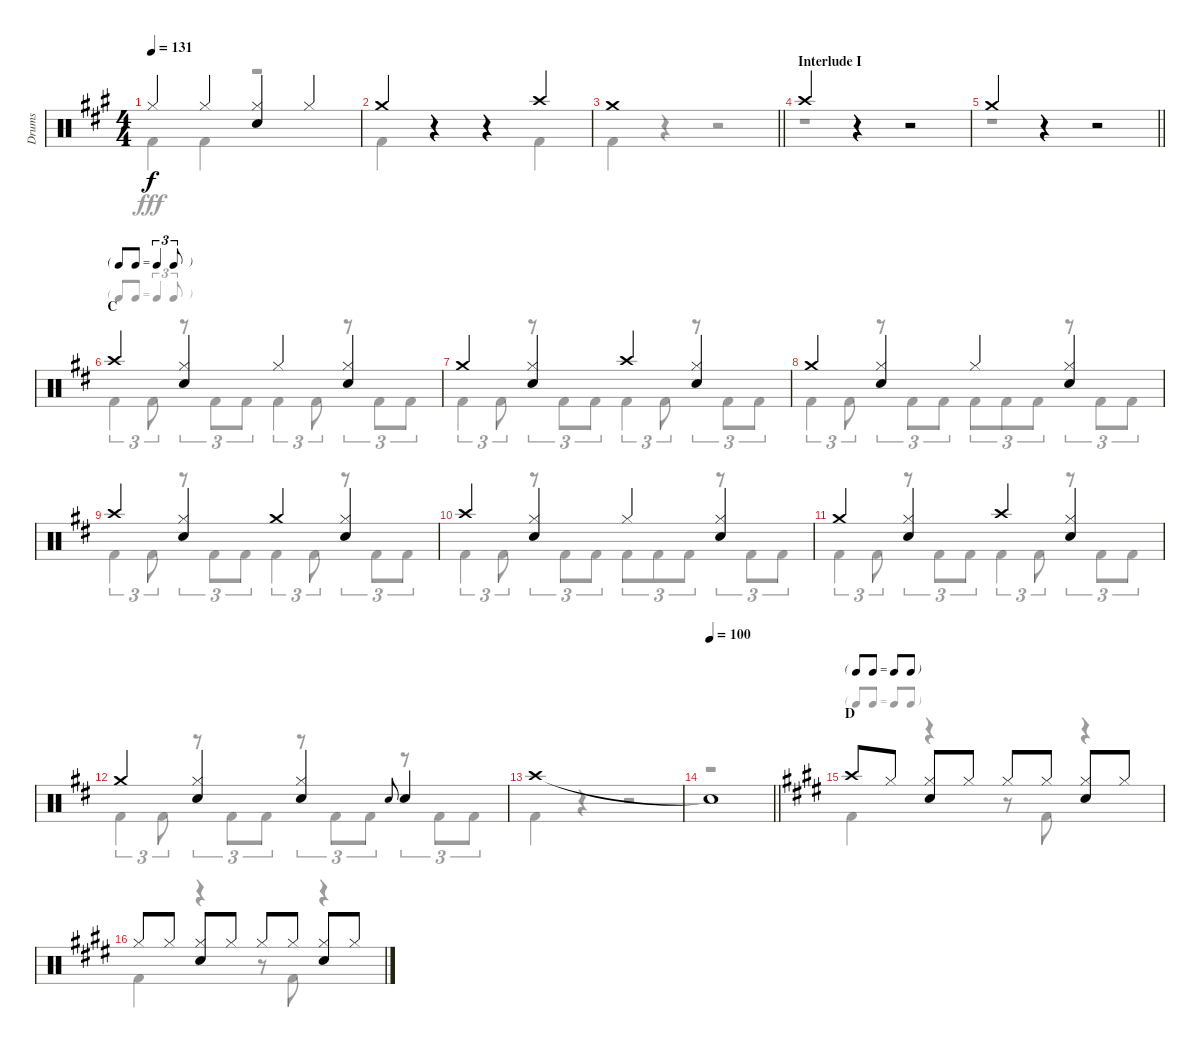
\track ("Drums" "Drums") {instrument percussion}
\staff {score}
\articulation defaults
\voice
\ts (4 4)
\tempo 131
\clef neutral
\ks a "Hi-Hat (closed)".4{dy f} "Hi-Hat (closed)".4
("Hi-Hat (closed)" "Snare (hit) 2").4 "Hi-Hat (closed)".4 |
"Crash medium (hit)".4 r.4 r.4 "Crash high (hit)".4 |
\barLineRight lightlight "Crash medium (hit)".1
|
\section ("" "Interlude I")
"Crash high (hit)".4 r.4 r.2 |
\barLineRight lightlight "Crash medium (hit)".4
r.4 r.2 |
\tf triplet8th
\section ("" "C")
\ks d "Crash high (hit)".4
("Hi-Hat (closed)" "Snare (hit) 2").4 "Hi-Hat (closed)".4 ("Hi-Hat (closed)" "Snare (hit) 2").4 |
"Crash medium (hit)".4 ("Hi-Hat (closed)" "Snare (hit) 2").4 "Crash high (hit)".4 ("Hi-Hat (closed)" "Snare (hit) 2").4 |
"Crash medium (hit)".4 ("Hi-Hat (closed)" "Snare (hit) 2").4 "Hi-Hat (closed)".4 ("Hi-Hat (closed)" "Snare (hit) 2").4 |
"Crash high (hit)".4 ("Hi-Hat (closed)" "Snare (hit) 2").4 "Crash medium (hit)".4 ("Hi-Hat (closed)" "Snare (hit) 2").4 |
"Crash high (hit)".4 ("Hi-Hat (closed)" "Snare (hit) 2").4 "Hi-Hat (closed)".4 ("Hi-Hat (closed)" "Snare (hit) 2").4 |
"Crash medium (hit)".4 ("Hi-Hat (closed)" "Snare (hit) 2").4 "Crash high (hit)".4 ("Hi-Hat (closed)" "Snare (hit) 2").4 |
"Crash medium (hit)".4 ("Hi-Hat (closed)" "Snare (hit) 2").4 ("Hi-Hat (closed)" "Snare (hit) 2").4 "Snare (hit) 2".8{gr onbeat} "Snare (hit) 2".4 |
"Crash high (hit)".1 |
\tempo 100
\barLineRight lightlight "Snare (hit)"{t}.1
|
\tf none
\section ("" "D")
\ks e "Crash high (hit)".8 "Hi-Hat (closed)".8
("Hi-Hat (closed)" "Snare (hit) 2").8 "Hi-Hat (closed)".8 "Hi-Hat (closed)".8 "Hi-Hat (closed)".8 ("Hi-Hat (closed)" "Snare (hit) 2").8 "Hi-Hat (closed)".8 |
"Hi-Hat (closed)".8 "Hi-Hat (closed)".8 ("Hi-Hat (closed)" "Snare (hit) 2").8 "Hi-Hat (closed)".8 "Hi-Hat (closed)".8 "Hi-Hat (closed)".8 ("Hi-Hat (closed)" "Snare (hit) 2").8 "Hi-Hat (closed)".8
\voice
\clef neutral
\ottava regular
\simile none
\ks a "Kick (hit) 2".4{dy fff} "Kick (hit) 2".4
r.2 |
"Kick (hit) 2".4 r.4 r.4 "Kick (hit) 2".4 |
\barLineRight lightlight "Kick (hit) 2".4
r.4 r.2 |
r.1 |
\barLineRight lightlight
r.1 |
\ks d "Kick (hit) 2".4{tu (3 2)} "Kick (hit) 2".8{tu (3 2)}
r.8{tu (3 2)} "Kick (hit) 2".8{tu (3 2)} "Kick (hit) 2".8{tu (3 2)} "Kick (hit) 2".4{tu (3 2)} "Kick (hit) 2".8{tu (3 2)} r.8{tu (3 2)} "Kick (hit) 2".8{tu (3 2)} "Kick (hit) 2".8{tu (3 2)} |
"Kick (hit) 2".4{tu (3 2)} "Kick (hit) 2".8{tu (3 2)} r.8{tu (3 2)} "Kick (hit) 2".8{tu (3 2)} "Kick (hit) 2".8{tu (3 2)} "Kick (hit) 2".4{tu (3 2)} "Kick (hit) 2".8{tu (3 2)} r.8{tu (3 2)} "Kick (hit) 2".8{tu (3 2)} "Kick (hit) 2".8{tu (3 2)} |
"Kick (hit) 2".4{tu (3 2)} "Kick (hit) 2".8{tu (3 2)} r.8{tu (3 2)} "Kick (hit) 2".8{tu (3 2)} "Kick (hit) 2".8{tu (3 2)} "Kick (hit) 2".8{tu (3 2)} "Kick (hit) 2".8{tu (3 2)} "Kick (hit) 2".8{tu (3 2)} r.8{tu (3 2)} "Kick (hit) 2".8{tu (3 2)} "Kick (hit) 2".8{tu (3 2)} |
"Kick (hit) 2".4{tu (3 2)} "Kick (hit) 2".8{tu (3 2)} r.8{tu (3 2)} "Kick (hit) 2".8{tu (3 2)} "Kick (hit) 2".8{tu (3 2)} "Kick (hit) 2".4{tu (3 2)} "Kick (hit) 2".8{tu (3 2)} r.8{tu (3 2)} "Kick (hit) 2".8{tu (3 2)} "Kick (hit) 2".8{tu (3 2)} |
"Kick (hit) 2".4{tu (3 2)} "Kick (hit) 2".8{tu (3 2)} r.8{tu (3 2)} "Kick (hit) 2".8{tu (3 2)} "Kick (hit) 2".8{tu (3 2)} "Kick (hit) 2".8{tu (3 2)} "Kick (hit) 2".8{tu (3 2)} "Kick (hit) 2".8{tu (3 2)} r.8{tu (3 2)} "Kick (hit) 2".8{tu (3 2)} "Kick (hit) 2".8{tu (3 2)} |
"Kick (hit) 2".4{tu (3 2)} "Kick (hit) 2".8{tu (3 2)} r.8{tu (3 2)} "Kick (hit) 2".8{tu (3 2)} "Kick (hit) 2".8{tu (3 2)} "Kick (hit) 2".4{tu (3 2)} "Kick (hit) 2".8{tu (3 2)} r.8{tu (3 2)} "Kick (hit) 2".8{tu (3 2)} "Kick (hit) 2".8{tu (3 2)} |
"Kick (hit) 2".4{tu (3 2)} "Kick (hit) 2".8{tu (3 2)} r.8{tu (3 2)} "Kick (hit) 2".8{tu (3 2)} "Kick (hit) 2".8{tu (3 2)} r.8{tu (3 2)} "Kick (hit) 2".8{tu (3 2)} "Kick (hit) 2".8{tu (3 2)} r.8{tu (3 2)} "Kick (hit) 2".8{tu (3 2)} "Kick (hit) 2".8{tu (3 2)} |
"Kick (hit) 2".4 r.4 r.2 |
\barLineRight lightlight
r.1 |
\ks e "Kick (hit) 2".4
r.4 r.8 "Kick (hit) 2".8 r.4 |
"Kick (hit) 2".4 r.4 r.8 "Kick (hit) 2".8 r.4
